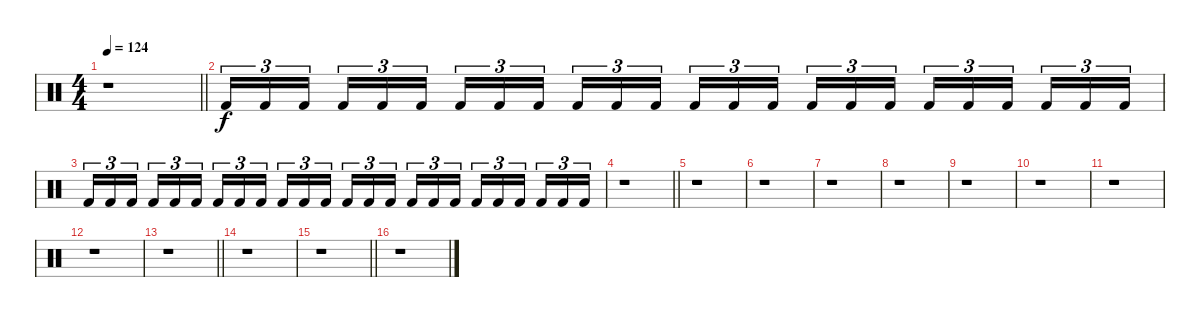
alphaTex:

\track "" {instrument percussion}
\staff {score}
\articulation defaults
\ts (4 4)
\tempo 124
\clef neutral
\barLineRight lightlight
\ks c
r.1{dy f} |
"Kick (hit) 2".16{tu (3 2)} "Kick (hit) 2".16{tu (3 2)} "Kick (hit) 2".16{tu (3 2) beam splitsecondary} "Kick (hit) 2".16{tu (3 2)} "Kick (hit) 2".16{tu (3 2)} "Kick (hit) 2".16{tu (3 2)} "Kick (hit) 2".16{tu (3 2)} "Kick (hit) 2".16{tu (3 2)} "Kick (hit) 2".16{tu (3 2) beam splitsecondary} "Kick (hit) 2".16{tu (3 2)} "Kick (hit) 2".16{tu (3 2)} "Kick (hit) 2".16{tu (3 2)} "Kick (hit) 2".16{tu (3 2)} "Kick (hit) 2".16{tu (3 2)} "Kick (hit) 2".16{tu (3 2) beam splitsecondary} "Kick (hit) 2".16{tu (3 2)} "Kick (hit) 2".16{tu (3 2)} "Kick (hit) 2".16{tu (3 2)} "Kick (hit) 2".16{tu (3 2)} "Kick (hit) 2".16{tu (3 2)} "Kick (hit) 2".16{tu (3 2) beam splitsecondary} "Kick (hit) 2".16{tu (3 2)} "Kick (hit) 2".16{tu (3 2)} "Kick (hit) 2".16{tu (3 2)} |
"Kick (hit) 2".16{tu (3 2)} "Kick (hit) 2".16{tu (3 2)} "Kick (hit) 2".16{tu (3 2) beam splitsecondary} "Kick (hit) 2".16{tu (3 2)} "Kick (hit) 2".16{tu (3 2)} "Kick (hit) 2".16{tu (3 2)} "Kick (hit) 2".16{tu (3 2)} "Kick (hit) 2".16{tu (3 2)} "Kick (hit) 2".16{tu (3 2) beam splitsecondary} "Kick (hit) 2".16{tu (3 2)} "Kick (hit) 2".16{tu (3 2)} "Kick (hit) 2".16{tu (3 2)} "Kick (hit) 2".16{tu (3 2)} "Kick (hit) 2".16{tu (3 2)} "Kick (hit) 2".16{tu (3 2) beam splitsecondary} "Kick (hit) 2".16{tu (3 2)} "Kick (hit) 2".16{tu (3 2)} "Kick (hit) 2".16{tu (3 2)} "Kick (hit) 2".16{tu (3 2)} "Kick (hit) 2".16{tu (3 2)} "Kick (hit) 2".16{tu (3 2) beam splitsecondary} "Kick (hit) 2".16{tu (3 2)} "Kick (hit) 2".16{tu (3 2)} "Kick (hit) 2".16{tu (3 2)} |
\barLineRight lightlight
r.1 |
r.1 |
r.1 |
r.1 |
r.1 |
r.1 |
r.1 |
r.1 |
r.1 |
\barLineRight lightlight
r.1 |
r.1 |
\barLineRight lightlight
r.1 |
r.1
